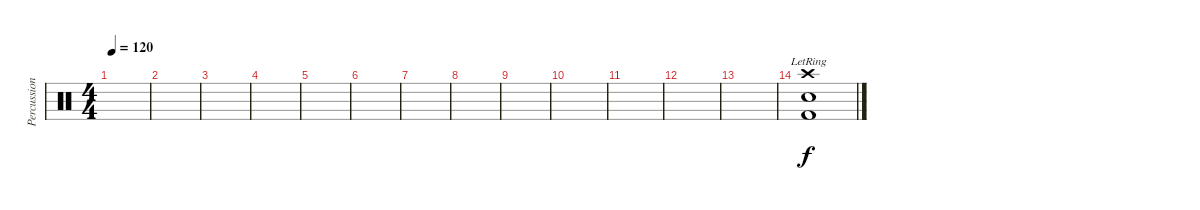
\track ("Percussion" "Percussion") {instrument percussion}
\staff {score}
\articulation defaults
\ts (4 4)
\tempo 120
\clef neutral
\ks c
|
|
|
|
|
|
|
|
|
|
|
|
|
("Crash high (hit)"{lr} "Electric Snare (hit)" "Kick (hit) 2").1{bd 480}
